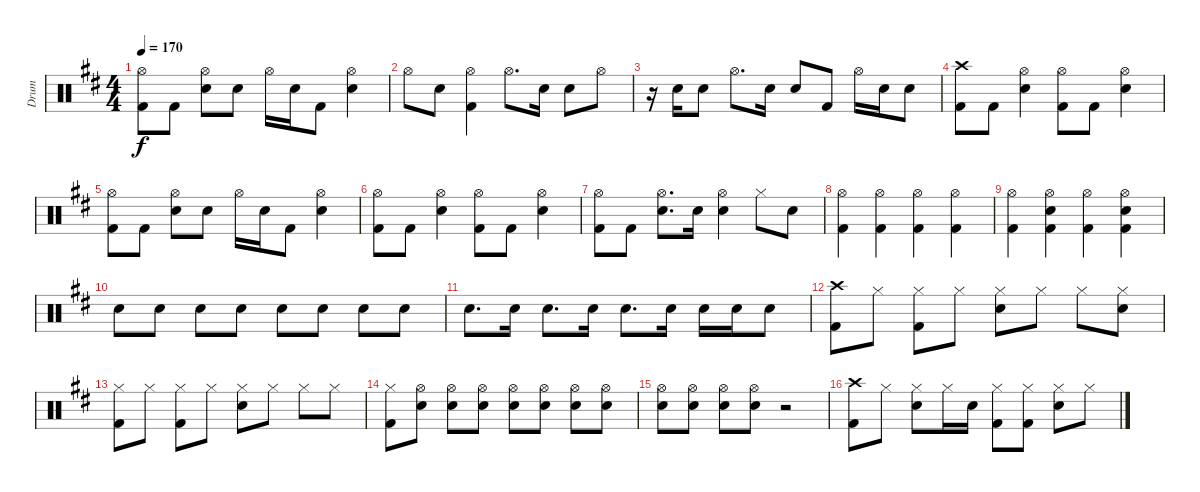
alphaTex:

\track ("Drum" "Drum") {instrument percussion}
\staff {score}
\articulation defaults
\ts (4 4)
\tempo 170
\clef neutral
\ks d
("Hi-Hat (open)" "Kick (hit) 2").8{dy f} "Kick (hit) 2".8 ("Hi-Hat (open)" "Electric Snare (hit)").8 "Electric Snare (hit)".8 "Hi-Hat (open)".16 "Electric Snare (hit)".16 "Kick (hit) 2".8 ("Hi-Hat (open)" "Electric Snare (hit)").4 |
"Hi-Hat (open)".8 "Electric Snare (hit)".8 ("Hi-Hat (open)" "Kick (hit) 2").4 "Hi-Hat (open)".8{d} "Electric Snare (hit)".16 "Electric Snare (hit)".8 "Hi-Hat (open)".8 |
r.16 "Electric Snare (hit)".16 "Electric Snare (hit)".8 "Hi-Hat (open)".8{d} "Electric Snare (hit)".16 "Electric Snare (hit)".8 "Kick (hit) 2".8 "Hi-Hat (open)".16 "Electric Snare (hit)".16 "Electric Snare (hit)".8 |
("Crash high (hit)" "Kick (hit) 2").8 "Kick (hit) 2".8 ("Hi-Hat (open)" "Electric Snare (hit)").4 ("Hi-Hat (open)" "Kick (hit) 2").8 "Kick (hit) 2".8 ("Hi-Hat (open)" "Electric Snare (hit)").4 |
("Hi-Hat (open)" "Kick (hit) 2").8 "Kick (hit) 2".8 ("Hi-Hat (open)" "Electric Snare (hit)").8 "Electric Snare (hit)".8 "Hi-Hat (open)".16 "Electric Snare (hit)".16 "Kick (hit) 2".8 ("Hi-Hat (open)" "Electric Snare (hit)").4 |
("Hi-Hat (open)" "Kick (hit) 2").8 "Kick (hit) 2".8 ("Hi-Hat (open)" "Electric Snare (hit)").4 ("Hi-Hat (open)" "Kick (hit) 2").8 "Kick (hit) 2".8 ("Hi-Hat (open)" "Electric Snare (hit)").4 |
("Hi-Hat (open)" "Kick (hit) 2").8 "Kick (hit) 2".8 ("Hi-Hat (open)" "Electric Snare (hit)").8{d} "Electric Snare (hit)".16 ("Hi-Hat (open)" "Electric Snare (hit)").4 "Hi-Hat (closed)".8 "Electric Snare (hit)".8 |
("Hi-Hat (open)" "Kick (hit) 2").4 ("Hi-Hat (open)" "Kick (hit) 2").4 ("Hi-Hat (open)" "Kick (hit) 2").4 ("Hi-Hat (open)" "Kick (hit) 2").4 |
("Hi-Hat (open)" "Kick (hit) 2").4 ("Hi-Hat (open)" "Electric Snare (hit)" "Kick (hit) 2").4 ("Hi-Hat (open)" "Kick (hit) 2").4 ("Hi-Hat (open)" "Electric Snare (hit)" "Kick (hit) 2").4 |
"Electric Snare (hit)".8 "Electric Snare (hit)".8 "Electric Snare (hit)".8 "Electric Snare (hit)".8 "Electric Snare (hit)".8 "Electric Snare (hit)".8 "Electric Snare (hit)".8 "Electric Snare (hit)".8 |
"Electric Snare (hit)".8{d} "Electric Snare (hit)".16 "Electric Snare (hit)".8{d} "Electric Snare (hit)".16 "Electric Snare (hit)".8{d} "Electric Snare (hit)".16 "Electric Snare (hit)".16 "Electric Snare (hit)".16 "Electric Snare (hit)".8 |
("Crash high (hit)" "Kick (hit) 2").8 "Hi-Hat (closed)".8 ("Hi-Hat (closed)" "Kick (hit) 2").8 "Hi-Hat (closed)".8 ("Hi-Hat (closed)" "Electric Snare (hit)").8 "Hi-Hat (closed)".8 "Hi-Hat (closed)".8 ("Hi-Hat (closed)" "Electric Snare (hit)").8 |
("Hi-Hat (closed)" "Kick (hit) 2").8 "Hi-Hat (closed)".8 ("Hi-Hat (closed)" "Kick (hit) 2").8 "Hi-Hat (closed)".8 ("Hi-Hat (closed)" "Electric Snare (hit)").8 "Hi-Hat (closed)".8 "Hi-Hat (closed)".8 "Hi-Hat (closed)".8 |
("Hi-Hat (closed)" "Kick (hit) 2").8 ("Hi-Hat (open)" "Electric Snare (hit)").8 ("Hi-Hat (open)" "Electric Snare (hit)").8 ("Hi-Hat (open)" "Electric Snare (hit)").8 ("Hi-Hat (open)" "Electric Snare (hit)").8 ("Hi-Hat (open)" "Electric Snare (hit)").8 ("Hi-Hat (open)" "Electric Snare (hit)").8 ("Hi-Hat (open)" "Electric Snare (hit)").8 |
("Hi-Hat (open)" "Electric Snare (hit)").8 ("Hi-Hat (open)" "Electric Snare (hit)").8 ("Hi-Hat (open)" "Electric Snare (hit)").8 ("Hi-Hat (open)" "Electric Snare (hit)").8 r.2 |
("Crash high (hit)" "Kick (hit) 2").8 "Hi-Hat (closed)".8 ("Hi-Hat (closed)" "Electric Snare (hit)").8 "Hi-Hat (closed)".16 "Electric Snare (hit)".16 ("Hi-Hat (closed)" "Kick (hit) 2").8 ("Hi-Hat (closed)" "Kick (hit) 2").8 ("Hi-Hat (closed)" "Electric Snare (hit)").8 "Hi-Hat (closed)".8
